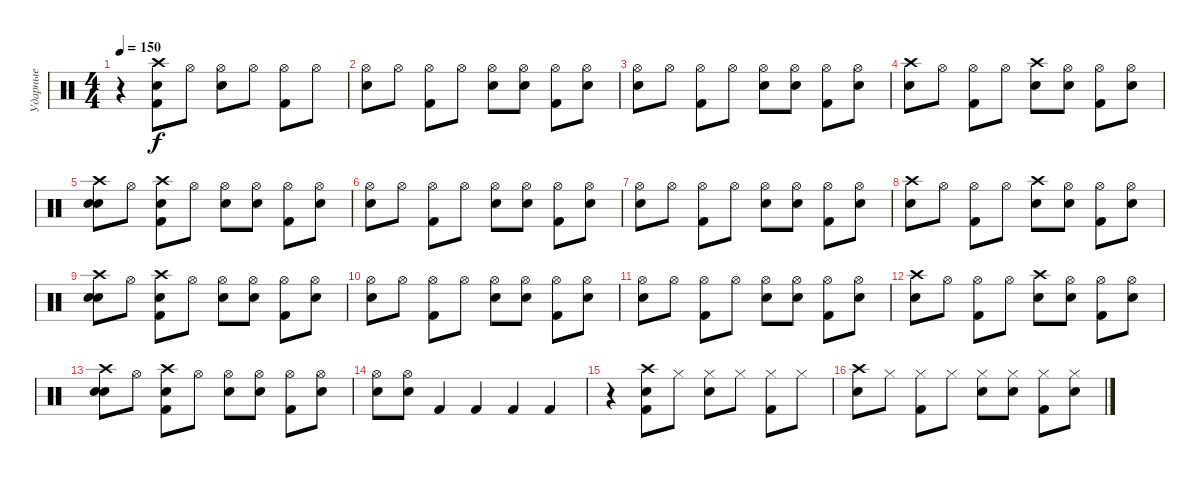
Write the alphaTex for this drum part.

\track ("Ударные" "Ударные") {instrument percussion}
\staff {score}
\articulation defaults
\ts (4 4)
\tempo 150
\clef neutral
\ks c
r.4{dy f} ("Snare (hit)" "Kick (hit) 2" "Crash high (hit)").8 "Hi-Hat (open)".8 ("Hi-Hat (open)" "Electric Snare (hit)").8 "Hi-Hat (open)".8 ("Hi-Hat (open)" "Kick (hit) 2").8 "Hi-Hat (open)".8 |
("Hi-Hat (open)" "Electric Snare (hit)").8 "Hi-Hat (open)".8 ("Hi-Hat (open)" "Kick (hit) 2").8 "Hi-Hat (open)".8 ("Hi-Hat (open)" "Electric Snare (hit)").8 ("Hi-Hat (open)" "Snare (hit)").8 ("Hi-Hat (open)" "Kick (hit) 2").8 ("Hi-Hat (open)" "Snare (hit)").8 |
("Hi-Hat (open)" "Electric Snare (hit)").8 "Hi-Hat (open)".8 ("Hi-Hat (open)" "Kick (hit) 2").8 "Hi-Hat (open)".8 ("Hi-Hat (open)" "Electric Snare (hit)").8 ("Hi-Hat (open)" "Snare (hit)").8 ("Hi-Hat (open)" "Kick (hit) 2").8 ("Hi-Hat (open)" "Snare (hit)").8 |
("Crash high (hit)" "Electric Snare (hit)").8 "Hi-Hat (open)".8 ("Hi-Hat (open)" "Kick (hit) 2").8 "Hi-Hat (open)".8 ("Crash high (hit)" "Electric Snare (hit)").8 ("Hi-Hat (open)" "Snare (hit)").8 ("Hi-Hat (open)" "Kick (hit) 2").8 ("Hi-Hat (open)" "Snare (hit)").8 |
("Snare (hit)" "Electric Snare (hit)" "Crash high (hit)").8 "Hi-Hat (open)".8 ("Snare (hit)" "Kick (hit) 2" "Crash high (hit)").8 "Hi-Hat (open)".8 ("Hi-Hat (open)" "Electric Snare (hit)").8 ("Hi-Hat (open)" "Snare (hit)").8 ("Hi-Hat (open)" "Kick (hit) 2").8 ("Hi-Hat (open)" "Snare (hit)").8 |
("Hi-Hat (open)" "Electric Snare (hit)").8 "Hi-Hat (open)".8 ("Hi-Hat (open)" "Kick (hit) 2").8 "Hi-Hat (open)".8 ("Hi-Hat (open)" "Electric Snare (hit)").8 ("Hi-Hat (open)" "Snare (hit)").8 ("Hi-Hat (open)" "Kick (hit) 2").8 ("Hi-Hat (open)" "Snare (hit)").8 |
("Hi-Hat (open)" "Electric Snare (hit)").8 "Hi-Hat (open)".8 ("Hi-Hat (open)" "Kick (hit) 2").8 "Hi-Hat (open)".8 ("Hi-Hat (open)" "Electric Snare (hit)").8 ("Hi-Hat (open)" "Snare (hit)").8 ("Hi-Hat (open)" "Kick (hit) 2").8 ("Hi-Hat (open)" "Snare (hit)").8 |
("Crash high (hit)" "Electric Snare (hit)").8 "Hi-Hat (open)".8 ("Hi-Hat (open)" "Kick (hit) 2").8 "Hi-Hat (open)".8 ("Crash high (hit)" "Electric Snare (hit)").8 ("Hi-Hat (open)" "Snare (hit)").8 ("Hi-Hat (open)" "Kick (hit) 2").8 ("Hi-Hat (open)" "Snare (hit)").8 |
("Snare (hit)" "Electric Snare (hit)" "Crash high (hit)").8 "Hi-Hat (open)".8 ("Snare (hit)" "Kick (hit) 2" "Crash high (hit)").8 "Hi-Hat (open)".8 ("Hi-Hat (open)" "Electric Snare (hit)").8 ("Hi-Hat (open)" "Snare (hit)").8 ("Hi-Hat (open)" "Kick (hit) 2").8 ("Hi-Hat (open)" "Snare (hit)").8 |
("Hi-Hat (open)" "Electric Snare (hit)").8 "Hi-Hat (open)".8 ("Hi-Hat (open)" "Kick (hit) 2").8 "Hi-Hat (open)".8 ("Hi-Hat (open)" "Electric Snare (hit)").8 ("Hi-Hat (open)" "Snare (hit)").8 ("Hi-Hat (open)" "Kick (hit) 2").8 ("Hi-Hat (open)" "Snare (hit)").8 |
("Hi-Hat (open)" "Electric Snare (hit)").8 "Hi-Hat (open)".8 ("Hi-Hat (open)" "Kick (hit) 2").8 "Hi-Hat (open)".8 ("Hi-Hat (open)" "Electric Snare (hit)").8 ("Hi-Hat (open)" "Snare (hit)").8 ("Hi-Hat (open)" "Kick (hit) 2").8 ("Hi-Hat (open)" "Snare (hit)").8 |
("Crash high (hit)" "Electric Snare (hit)").8 "Hi-Hat (open)".8 ("Hi-Hat (open)" "Kick (hit) 2").8 "Hi-Hat (open)".8 ("Crash high (hit)" "Electric Snare (hit)").8 ("Hi-Hat (open)" "Snare (hit)").8 ("Hi-Hat (open)" "Kick (hit) 2").8 ("Hi-Hat (open)" "Snare (hit)").8 |
("Snare (hit)" "Electric Snare (hit)" "Crash high (hit)").8 "Hi-Hat (open)".8 ("Snare (hit)" "Kick (hit) 2" "Crash high (hit)").8 "Hi-Hat (open)".8 ("Hi-Hat (open)" "Electric Snare (hit)").8 ("Hi-Hat (open)" "Snare (hit)").8 ("Hi-Hat (open)" "Kick (hit) 2").8 ("Hi-Hat (open)" "Snare (hit)").8 |
("Hi-Hat (open)" "Electric Snare (hit)").8 ("Hi-Hat (open)" "Snare (hit)").8 "Kick (hit) 2".4 "Kick (hit) 2".4 "Kick (hit) 2".4 "Kick (hit) 2".4 |
r.4 ("Snare (hit)" "Kick (hit) 2" "Crash high (hit)").8 "Hi-Hat (closed)".8 ("Hi-Hat (closed)" "Electric Snare (hit)").8 "Hi-Hat (closed)".8 ("Hi-Hat (closed)" "Kick (hit) 2").8 "Hi-Hat (closed)".8 |
("Crash high (hit)" "Electric Snare (hit)").8 "Hi-Hat (closed)".8 ("Hi-Hat (closed)" "Kick (hit) 2").8 "Hi-Hat (closed)".8 ("Hi-Hat (closed)" "Electric Snare (hit)").8 ("Hi-Hat (closed)" "Snare (hit)").8 ("Hi-Hat (closed)" "Kick (hit) 2").8 ("Hi-Hat (closed)" "Snare (hit)").8
